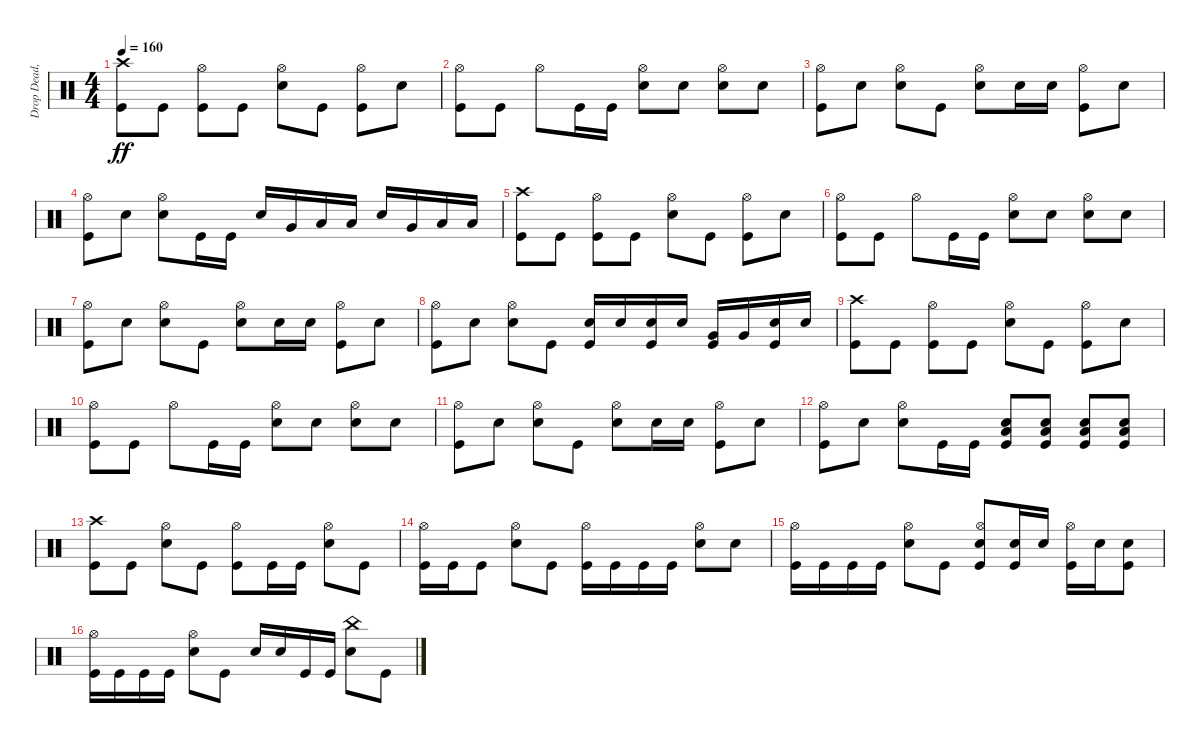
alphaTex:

\track ("Drop Dead, Johnny" "Drop Dead,") {instrument percussion}
\staff {score}
\articulation defaults
\ts (4 4)
\tempo 160
\clef neutral
\ks c
("Crash high (hit)" "Kick (hit)").8{dy ff} "Kick (hit)".8 ("Hi-Hat (open)" "Kick (hit)").8 "Kick (hit)".8 ("Hi-Hat (open)" "Electric Snare (hit)").8 "Kick (hit)".8 ("Hi-Hat (open)" "Kick (hit)").8 "Electric Snare (hit)".8 |
("Hi-Hat (open)" "Kick (hit)").8 "Kick (hit)".8 "Hi-Hat (open)".8 "Kick (hit)".16 "Kick (hit)".16 ("Hi-Hat (open)" "Electric Snare (hit)").8 "Electric Snare (hit)".8 ("Hi-Hat (open)" "Electric Snare (hit)").8 "Electric Snare (hit)".8 |
("Hi-Hat (open)" "Kick (hit)").8 "Electric Snare (hit)".8 ("Hi-Hat (open)" "Electric Snare (hit)").8 "Kick (hit)".8 ("Hi-Hat (open)" "Electric Snare (hit)").8 "Electric Snare (hit)".16 "Electric Snare (hit)".16 ("Hi-Hat (open)" "Kick (hit)").8 "Electric Snare (hit)".8 |
("Hi-Hat (open)" "Kick (hit)").8 "Electric Snare (hit)".8 ("Hi-Hat (open)" "Electric Snare (hit)").8 "Kick (hit)".16 "Kick (hit)".16 "Electric Snare (hit)".16 "Very Low Tom (hit)".16 "Low Floor Tom (hit)".16 "Low Floor Tom (hit)".16 "Electric Snare (hit)".16 "Very Low Tom (hit)".16 "Low Floor Tom (hit)".16 "Low Floor Tom (hit)".16 |
("Crash high (hit)" "Kick (hit)").8 "Kick (hit)".8 ("Hi-Hat (open)" "Kick (hit)").8 "Kick (hit)".8 ("Hi-Hat (open)" "Electric Snare (hit)").8 "Kick (hit)".8 ("Hi-Hat (open)" "Kick (hit)").8 "Electric Snare (hit)".8 |
("Hi-Hat (open)" "Kick (hit)").8 "Kick (hit)".8 "Hi-Hat (open)".8 "Kick (hit)".16 "Kick (hit)".16 ("Hi-Hat (open)" "Electric Snare (hit)").8 "Electric Snare (hit)".8 ("Hi-Hat (open)" "Electric Snare (hit)").8 "Electric Snare (hit)".8 |
("Hi-Hat (open)" "Kick (hit)").8 "Electric Snare (hit)".8 ("Hi-Hat (open)" "Electric Snare (hit)").8 "Kick (hit)".8 ("Hi-Hat (open)" "Electric Snare (hit)").8 "Electric Snare (hit)".16 "Electric Snare (hit)".16 ("Hi-Hat (open)" "Kick (hit)").8 "Electric Snare (hit)".8 |
("Hi-Hat (open)" "Kick (hit)").8 "Electric Snare (hit)".8 ("Hi-Hat (open)" "Electric Snare (hit)").8 "Kick (hit)".8 ("Electric Snare (hit)" "Kick (hit)").16 "Electric Snare (hit)".16 ("Electric Snare (hit)" "Kick (hit)").16 "Electric Snare (hit)".16 ("Very Low Tom (hit)" "Kick (hit)").16 "Very Low Tom (hit)".16 ("Electric Snare (hit)" "Kick (hit)").16 "Electric Snare (hit)".16 |
("Crash high (hit)" "Kick (hit)").8 "Kick (hit)".8 ("Hi-Hat (open)" "Kick (hit)").8 "Kick (hit)".8 ("Hi-Hat (open)" "Electric Snare (hit)").8 "Kick (hit)".8 ("Hi-Hat (open)" "Kick (hit)").8 "Electric Snare (hit)".8 |
("Hi-Hat (open)" "Kick (hit)").8 "Kick (hit)".8 "Hi-Hat (open)".8 "Kick (hit)".16 "Kick (hit)".16 ("Hi-Hat (open)" "Electric Snare (hit)").8 "Electric Snare (hit)".8 ("Hi-Hat (open)" "Electric Snare (hit)").8 "Electric Snare (hit)".8 |
("Hi-Hat (open)" "Kick (hit)").8 "Electric Snare (hit)".8 ("Hi-Hat (open)" "Electric Snare (hit)").8 "Kick (hit)".8 ("Hi-Hat (open)" "Electric Snare (hit)").8 "Electric Snare (hit)".16 "Electric Snare (hit)".16 ("Hi-Hat (open)" "Kick (hit)").8 "Electric Snare (hit)".8 |
("Hi-Hat (open)" "Kick (hit)").8 "Electric Snare (hit)".8 ("Hi-Hat (open)" "Electric Snare (hit)").8 "Kick (hit)".16 "Kick (hit)".16 ("Low Floor Tom (hit)" "Electric Snare (hit)" "Kick (hit)").8 ("Low Floor Tom (hit)" "Electric Snare (hit)" "Kick (hit)").8 ("Low Floor Tom (hit)" "Electric Snare (hit)" "Kick (hit)").8 ("Low Floor Tom (hit)" "Electric Snare (hit)" "Kick (hit)").8 |
("Crash high (hit)" "Kick (hit)").8 "Kick (hit)".8 ("Hi-Hat (open)" "Electric Snare (hit)").8 "Kick (hit)".8 ("Hi-Hat (open)" "Kick (hit)").8 "Kick (hit)".16 "Kick (hit)".16 ("Hi-Hat (open)" "Electric Snare (hit)").8 "Kick (hit)".8 |
("Hi-Hat (open)" "Kick (hit)").16 "Kick (hit)".16 "Kick (hit)".8 ("Hi-Hat (open)" "Electric Snare (hit)").8 "Kick (hit)".8 ("Hi-Hat (open)" "Kick (hit)").16 "Kick (hit)".16 "Kick (hit)".16 "Kick (hit)".16 ("Hi-Hat (open)" "Electric Snare (hit)").8 "Electric Snare (hit)".8 |
("Hi-Hat (open)" "Kick (hit)").16 "Kick (hit)".16 "Kick (hit)".16 "Kick (hit)".16 ("Hi-Hat (open)" "Electric Snare (hit)").8 "Kick (hit)".8 ("Hi-Hat (open)" "Electric Snare (hit)" "Kick (hit)").8 ("Electric Snare (hit)" "Kick (hit)").16 "Electric Snare (hit)".16 ("Hi-Hat (open)" "Kick (hit)").16 "Electric Snare (hit)".16 ("Electric Snare (hit)" "Kick (hit)").8 |
("Hi-Hat (open)" "Kick (hit)").16 "Kick (hit)".16 "Kick (hit)".16 "Kick (hit)".16 ("Hi-Hat (open)" "Electric Snare (hit)").8 "Kick (hit)".8 "Electric Snare (hit)".16 "Electric Snare (hit)".16 "Kick (hit)".16 "Kick (hit)".16 ("China (hit)" "Electric Snare (hit)").8 "Kick (hit)".8
